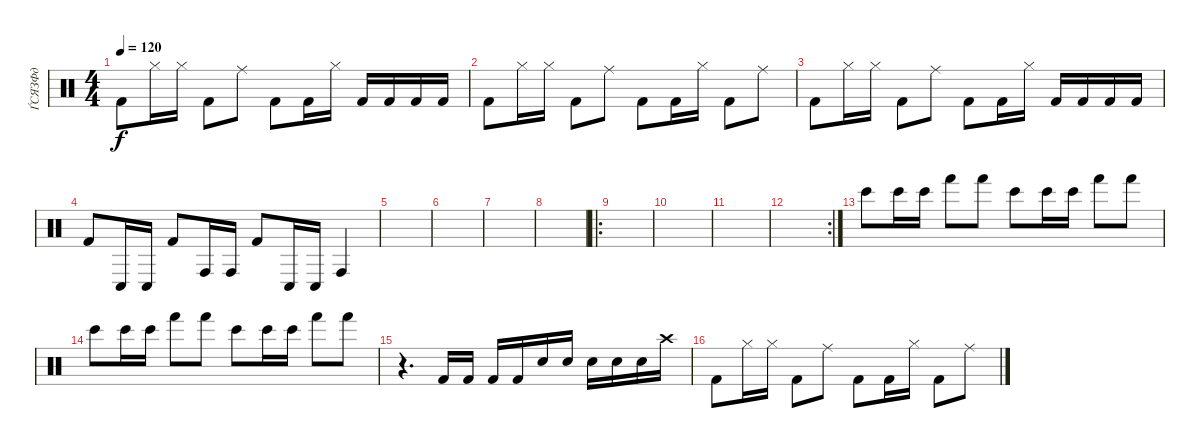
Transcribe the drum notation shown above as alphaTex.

\track ("ЃСЯЗФд" "ЃСЯЗФд") {instrument percussion}
\staff {score}
\articulation defaults
\ts (4 4)
\tempo 120
\clef neutral
\ks aminor "Kick (hit) 2".8{dy f} "Hi-Hat (closed)".16 "Hi-Hat (closed)".16 "Kick (hit) 2".8 "Ride (middle)".8 "Kick (hit) 2".8 "Kick (hit) 2".16 "Hi-Hat (closed)".16 "Kick (hit) 2".16 "Kick (hit) 2".16 "Kick (hit) 2".16 "Kick (hit) 2".16
|
"Kick (hit) 2".8 "Hi-Hat (closed)".16 "Hi-Hat (closed)".16 "Kick (hit) 2".8 "Ride (middle)".8 "Kick (hit) 2".8 "Kick (hit) 2".16 "Hi-Hat (closed)".16 "Kick (hit) 2".8 "Ride (middle)".8 |
"Kick (hit) 2".8 "Hi-Hat (closed)".16 "Hi-Hat (closed)".16 "Kick (hit) 2".8 "Ride (middle)".8 "Kick (hit) 2".8 "Kick (hit) 2".16 "Hi-Hat (closed)".16 "Kick (hit) 2".16 "Kick (hit) 2".16 "Kick (hit) 2".16 "Kick (hit) 2".16 |
"Kick (hit) 2".8 "Conga low (hit)".16 "Conga low (hit)".16 "Kick (hit) 2".8 "Conga high (hit)".16 "Conga high (hit)".16 "Kick (hit) 2".8 "Conga low (hit)".16 "Conga low (hit)".16 "Conga high (hit)".4 |
|
|
|
|
\ro
|
|
|
\rc 2
|
"Bongo High (hit)".8 "Bongo High (hit)".16 "Bongo High (hit)".16 "Hand (hit)".8 "Hand (hit)".8 "Bongo High (hit)".8 "Bongo High (hit)".16 "Bongo High (hit)".16 "Hand (hit)".8 "Hand (hit)".8 |
"Bongo High (hit)".8 "Bongo High (hit)".16 "Bongo High (hit)".16 "Hand (hit)".8 "Hand (hit)".8 "Bongo High (hit)".8 "Bongo High (hit)".16 "Bongo High (hit)".16 "Hand (hit)".8 "Hand (hit)".8 |
r.4{d} "Kick (hit) 2".16 "Kick (hit) 2".16 "Kick (hit) 2".16 "Kick (hit) 2".16 "Snare (hit) 2".16 "Snare (hit) 2".16 "Snare (hit) 2".16 "Snare (hit) 2".16 "Snare (hit) 2".16 "Crash high (hit)".16 |
"Kick (hit) 2".8 "Hi-Hat (closed)".16 "Hi-Hat (closed)".16 "Kick (hit) 2".8 "Ride (middle)".8 "Kick (hit) 2".8 "Kick (hit) 2".16 "Hi-Hat (closed)".16 "Kick (hit) 2".8 "Ride (middle)".8
